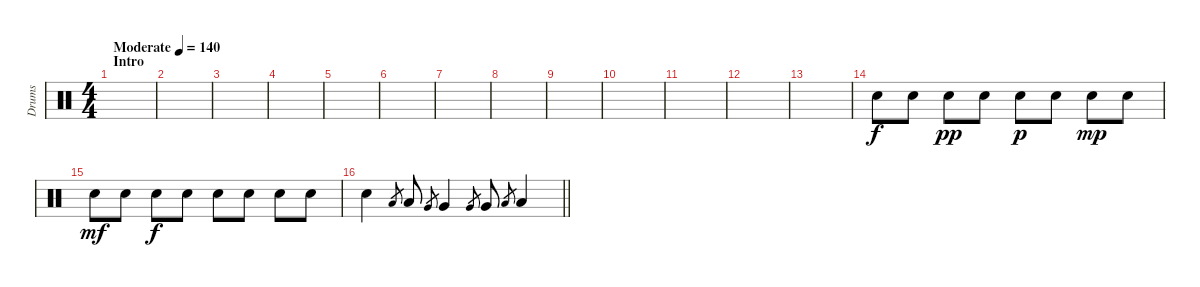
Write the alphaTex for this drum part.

\track ("Drums" "Drums") {instrument percussion}
\staff {score}
\articulation defaults
\ts (4 4)
\section ("" "Intro")
\tempo (140 "Moderate")
\clef neutral
\ks c
|
|
|
|
|
|
|
|
|
|
|
|
|
"Snare (hit) 2".8 "Snare (hit) 2".8 "Snare (hit) 2".8{dy pp} "Snare (hit) 2".8 "Snare (hit) 2".8{dy p} "Snare (hit) 2".8 "Snare (hit) 2".8{dy mp} "Snare (hit) 2".8 |
"Snare (hit) 2".8{dy mf} "Snare (hit) 2".8 "Snare (hit) 2".8{dy f} "Snare (hit) 2".8 "Snare (hit) 2".8 "Snare (hit) 2".8 "Snare (hit) 2".8 "Snare (hit) 2".8 |
\barLineRight lightlight "Snare (hit) 2".4 "Low Tom (hit)".8{gr} "Low Tom (hit)".8 "Very Low Tom (hit)".8{gr} "Very Low Tom (hit)".4 "Very Low Tom (hit)".8{gr} "Very Low Tom (hit)".8 "Low Floor Tom (hit)".8{gr} "Low Floor Tom (hit)".4
